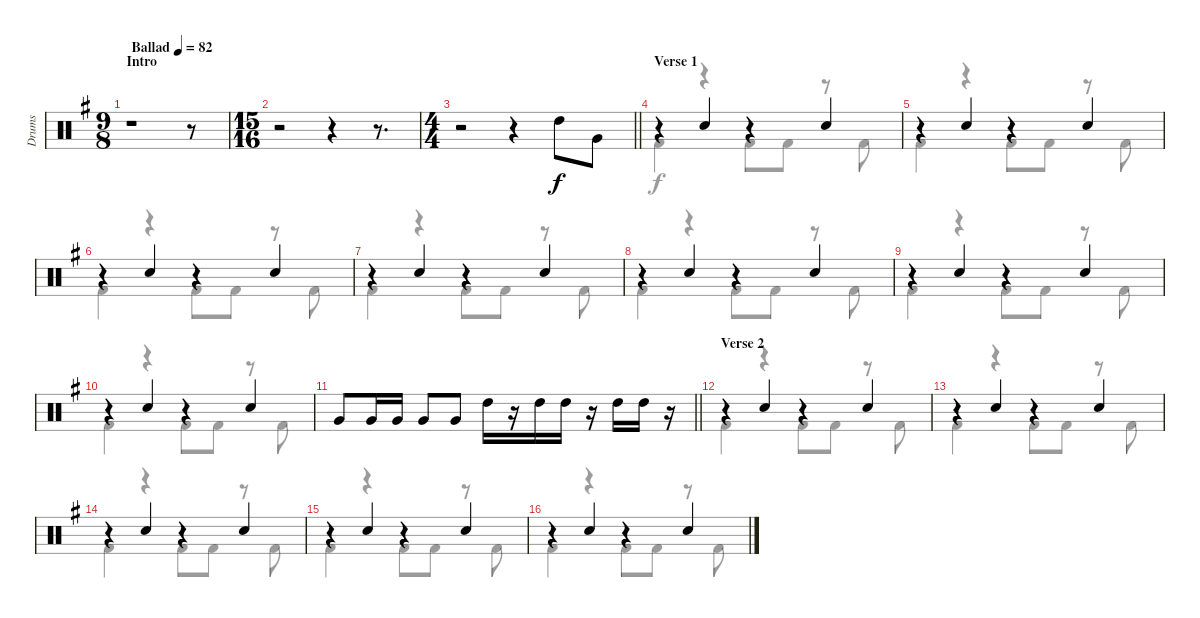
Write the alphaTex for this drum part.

\track ("Drums" "Drums") {instrument percussion}
\staff {score}
\articulation defaults
\voice
\ts (9 8)
\section ("" "Intro")
\tempo (82 "Ballad")
\clef neutral
\ks eminor
r.1{dy f} r.8 |
\ts (15 16)
r.2 r.4 r.8{d} |
\ts (4 4)
\barLineRight lightlight
r.2 r.4 "High Tom (hit)".8 "Very Low Tom (hit)".8 |
\section ("" "Verse 1")
r.4 "Electric Snare (hit)".4 r.4 "Electric Snare (hit)".4 |
r.4 "Electric Snare (hit)".4 r.4 "Electric Snare (hit)".4 |
r.4 "Electric Snare (hit)".4 r.4 "Electric Snare (hit)".4 |
r.4 "Electric Snare (hit)".4 r.4 "Electric Snare (hit)".4 |
r.4 "Electric Snare (hit)".4 r.4 "Electric Snare (hit)".4 |
r.4 "Electric Snare (hit)".4 r.4 "Electric Snare (hit)".4 |
r.4 "Electric Snare (hit)".4 r.4 "Electric Snare (hit)".4 |
\barLineRight lightlight "Very Low Tom (hit)".8 "Very Low Tom (hit)".16 "Very Low Tom (hit)".16 "Very Low Tom (hit)".8 "Very Low Tom (hit)".8 "High Tom (hit)".16
r.16 "High Tom (hit)".16 "High Tom (hit)".16 r.16 "High Tom (hit)".16 "High Tom (hit)".16 r.16 |
\section ("" "Verse 2")
r.4 "Electric Snare (hit)".4 r.4 "Electric Snare (hit)".4 |
r.4 "Electric Snare (hit)".4 r.4 "Electric Snare (hit)".4 |
r.4 "Electric Snare (hit)".4 r.4 "Electric Snare (hit)".4 |
r.4 "Electric Snare (hit)".4 r.4 "Electric Snare (hit)".4 |
r.4 "Electric Snare (hit)".4 r.4 "Electric Snare (hit)".4
\voice
\clef neutral
\ottava regular
\simile none
\ks eminor
|
|
\barLineRight lightlight
|
"Kick (hit) 2".4 r.4 "Kick (hit) 2".8 "Kick (hit) 2".8 r.8 "Kick (hit) 2".8 |
"Kick (hit) 2".4 r.4 "Kick (hit) 2".8 "Kick (hit) 2".8 r.8 "Kick (hit) 2".8 |
"Kick (hit) 2".4 r.4 "Kick (hit) 2".8 "Kick (hit) 2".8 r.8 "Kick (hit) 2".8 |
"Kick (hit) 2".4 r.4 "Kick (hit) 2".8 "Kick (hit) 2".8 r.8 "Kick (hit) 2".8 |
"Kick (hit) 2".4 r.4 "Kick (hit) 2".8 "Kick (hit) 2".8 r.8 "Kick (hit) 2".8 |
"Kick (hit) 2".4 r.4 "Kick (hit) 2".8 "Kick (hit) 2".8 r.8 "Kick (hit) 2".8 |
"Kick (hit) 2".4 r.4 "Kick (hit) 2".8 "Kick (hit) 2".8 r.8 "Kick (hit) 2".8 |
\barLineRight lightlight
|
"Kick (hit) 2".4 r.4 "Kick (hit) 2".8 "Kick (hit) 2".8 r.8 "Kick (hit) 2".8 |
"Kick (hit) 2".4 r.4 "Kick (hit) 2".8 "Kick (hit) 2".8 r.8 "Kick (hit) 2".8 |
"Kick (hit) 2".4 r.4 "Kick (hit) 2".8 "Kick (hit) 2".8 r.8 "Kick (hit) 2".8 |
"Kick (hit) 2".4 r.4 "Kick (hit) 2".8 "Kick (hit) 2".8 r.8 "Kick (hit) 2".8 |
"Kick (hit) 2".4 r.4 "Kick (hit) 2".8 "Kick (hit) 2".8 r.8 "Kick (hit) 2".8
